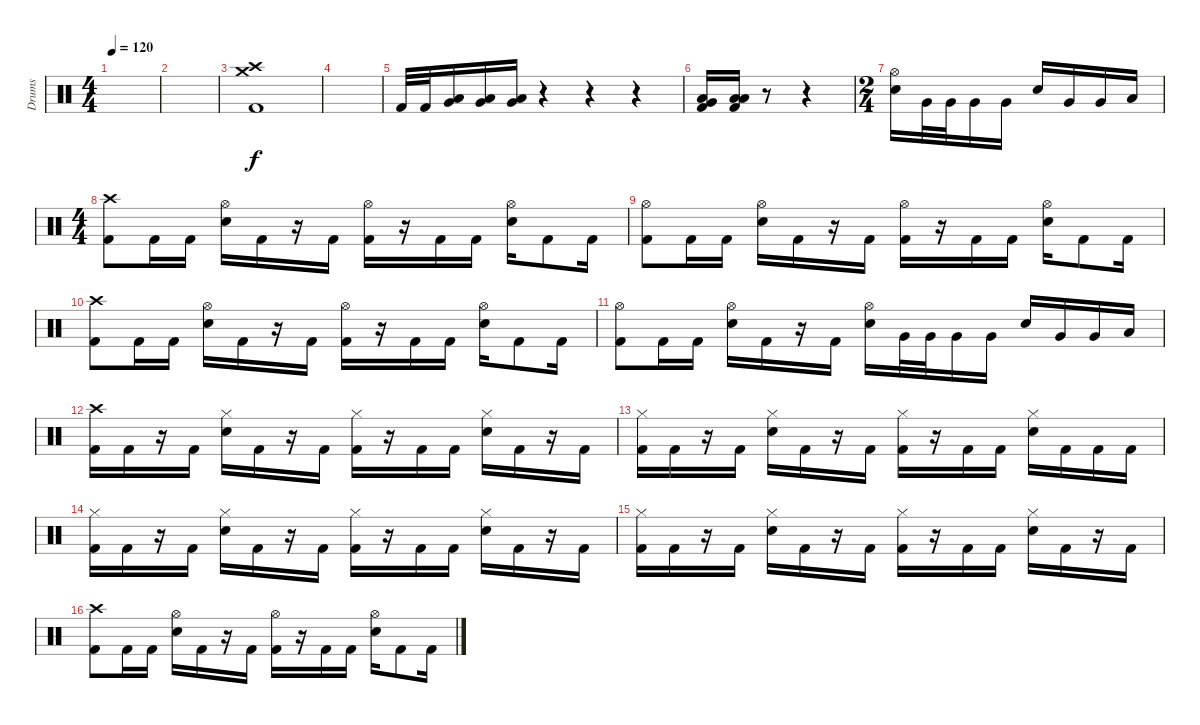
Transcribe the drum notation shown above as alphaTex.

\track ("Drums" "Drums") {instrument percussion}
\staff {score}
\articulation defaults
\ts (4 4)
\tempo 120
\tempo 94
\tempo 120
\clef neutral
\ks c
|
|
("Crash medium (hit)" "Crash high (hit)" "Kick (hit) 2").1 |
|
"Kick (hit) 2".32 "Kick (hit) 2".32 ("Low Floor Tom (hit)" "Very Low Tom (hit)").16 ("Low Floor Tom (hit)" "Very Low Tom (hit)").16 ("Low Floor Tom (hit)" "Very Low Tom (hit)").16 r.4 r.4 r.4 |
("Low Floor Tom (hit)" "Very Low Tom (hit)" "Kick (hit) 2").16 ("Low Floor Tom (hit)" "Low Tom (hit)" "Kick (hit) 2").16 r.8 r.4 |
\ts (2 4)
("Hi-Hat (open)" "Electric Snare (hit)").16 "Very Low Tom (hit)".32 "Very Low Tom (hit)".32 "Very Low Tom (hit)".16 "Very Low Tom (hit)".16 "Electric Snare (hit)".16 "Very Low Tom (hit)".16 "Very Low Tom (hit)".16 "Low Floor Tom (hit)".16 |
\ts (4 4)
("Crash high (hit)" "Kick (hit) 2").8 "Kick (hit) 2".16 "Kick (hit) 2".16 ("Hi-Hat (open)" "Electric Snare (hit)").16 "Kick (hit) 2".16 r.16 "Kick (hit) 2".16 ("Hi-Hat (open)" "Kick (hit) 2").16 r.16 "Kick (hit) 2".16 "Kick (hit) 2".16 ("Hi-Hat (open)" "Electric Snare (hit)").16 "Kick (hit) 2".8 "Kick (hit) 2".16 |
("Hi-Hat (open)" "Kick (hit) 2").8 "Kick (hit) 2".16 "Kick (hit) 2".16 ("Hi-Hat (open)" "Electric Snare (hit)").16 "Kick (hit) 2".16 r.16 "Kick (hit) 2".16 ("Hi-Hat (open)" "Kick (hit) 2").16 r.16 "Kick (hit) 2".16 "Kick (hit) 2".16 ("Hi-Hat (open)" "Electric Snare (hit)").16 "Kick (hit) 2".8 "Kick (hit) 2".16 |
("Crash high (hit)" "Kick (hit) 2").8 "Kick (hit) 2".16 "Kick (hit) 2".16 ("Hi-Hat (open)" "Electric Snare (hit)").16 "Kick (hit) 2".16 r.16 "Kick (hit) 2".16 ("Hi-Hat (open)" "Kick (hit) 2").16 r.16 "Kick (hit) 2".16 "Kick (hit) 2".16 ("Hi-Hat (open)" "Electric Snare (hit)").16 "Kick (hit) 2".8 "Kick (hit) 2".16 |
("Hi-Hat (open)" "Kick (hit) 2").8 "Kick (hit) 2".16 "Kick (hit) 2".16 ("Hi-Hat (open)" "Electric Snare (hit)").16 "Kick (hit) 2".16 r.16 "Kick (hit) 2".16 ("Hi-Hat (open)" "Electric Snare (hit)").16 "Very Low Tom (hit)".32 "Very Low Tom (hit)".32 "Very Low Tom (hit)".16 "Very Low Tom (hit)".16 "Electric Snare (hit)".16 "Very Low Tom (hit)".16 "Very Low Tom (hit)".16 "Low Floor Tom (hit)".16 |
("Crash high (hit)" "Kick (hit) 2").16 "Kick (hit) 2".16 r.16 "Kick (hit) 2".16 ("Hi-Hat (closed)" "Electric Snare (hit)").16 "Kick (hit) 2".16 r.16 "Kick (hit) 2".16 ("Hi-Hat (closed)" "Kick (hit) 2").16 r.16 "Kick (hit) 2".16 "Kick (hit) 2".16 ("Hi-Hat (closed)" "Electric Snare (hit)").16 "Kick (hit) 2".16 r.16 "Kick (hit) 2".16 |
("Hi-Hat (closed)" "Kick (hit) 2").16 "Kick (hit) 2".16 r.16 "Kick (hit) 2".16 ("Hi-Hat (closed)" "Electric Snare (hit)").16 "Kick (hit) 2".16 r.16 "Kick (hit) 2".16 ("Hi-Hat (closed)" "Kick (hit) 2").16 r.16 "Kick (hit) 2".16 "Kick (hit) 2".16 ("Hi-Hat (closed)" "Electric Snare (hit)").16 "Kick (hit) 2".16 "Kick (hit) 2".16 "Kick (hit) 2".16 |
("Hi-Hat (closed)" "Kick (hit) 2").16 "Kick (hit) 2".16 r.16 "Kick (hit) 2".16 ("Hi-Hat (closed)" "Electric Snare (hit)").16 "Kick (hit) 2".16 r.16 "Kick (hit) 2".16 ("Hi-Hat (closed)" "Kick (hit) 2").16 r.16 "Kick (hit) 2".16 "Kick (hit) 2".16 ("Hi-Hat (closed)" "Electric Snare (hit)").16 "Kick (hit) 2".16 r.16 "Kick (hit) 2".16 |
("Hi-Hat (closed)" "Kick (hit) 2").16 "Kick (hit) 2".16 r.16 "Kick (hit) 2".16 ("Hi-Hat (closed)" "Electric Snare (hit)").16 "Kick (hit) 2".16 r.16 "Kick (hit) 2".16 ("Hi-Hat (closed)" "Kick (hit) 2").16 r.16 "Kick (hit) 2".16 "Kick (hit) 2".16 ("Hi-Hat (closed)" "Electric Snare (hit)").16 "Kick (hit) 2".16 r.16 "Kick (hit) 2".16 |
("Crash high (hit)" "Kick (hit) 2").8 "Kick (hit) 2".16 "Kick (hit) 2".16 ("Hi-Hat (open)" "Electric Snare (hit)").16 "Kick (hit) 2".16 r.16 "Kick (hit) 2".16 ("Hi-Hat (open)" "Kick (hit) 2").16 r.16 "Kick (hit) 2".16 "Kick (hit) 2".16 ("Hi-Hat (open)" "Electric Snare (hit)").16 "Kick (hit) 2".8 "Kick (hit) 2".16
